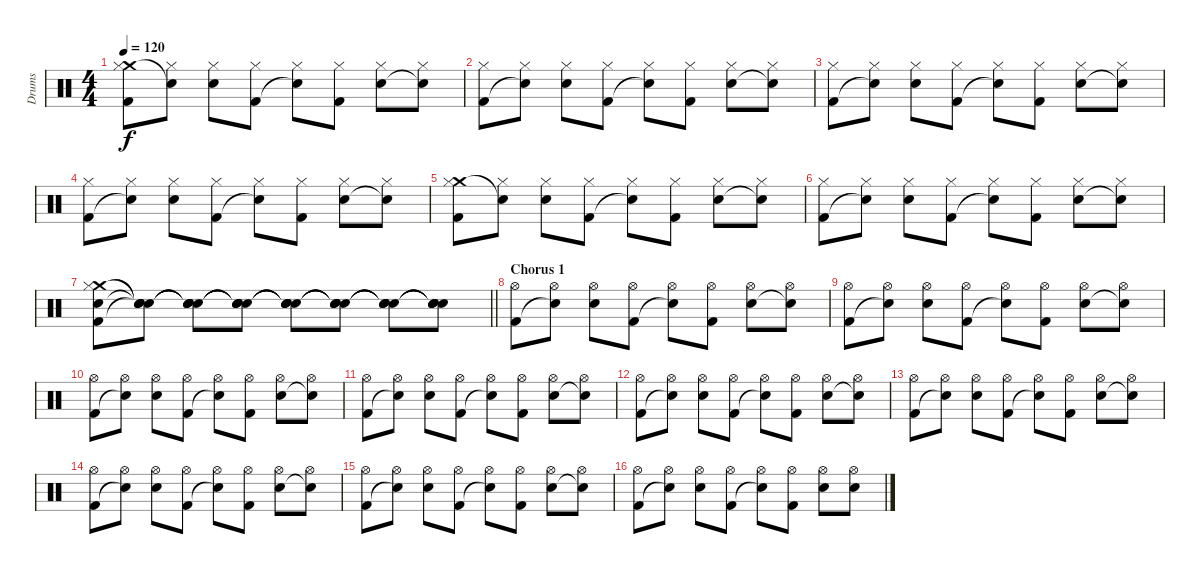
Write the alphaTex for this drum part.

\track ("Drums" "Drums") {instrument percussion}
\staff {score}
\articulation defaults
\ts (4 4)
\tempo 120
\clef neutral
\ks c
("Crash medium (hit)" "Hi-Hat (closed)" "Kick (hit) 2").8{dy f} ("Hi-Hat (closed)" "Snare (hit)"{t}).8 ("Hi-Hat (closed)" "Electric Snare (hit)").8 ("Hi-Hat (closed)" "Kick (hit) 2").8 ("Hi-Hat (closed)" "Snare (hit)"{t}).8 ("Hi-Hat (closed)" "Kick (hit) 2").8 ("Hi-Hat (closed)" "Electric Snare (hit)").8 ("Hi-Hat (closed)" "Snare (hit)"{t}).8 |
("Hi-Hat (closed)" "Kick (hit) 2").8 ("Hi-Hat (closed)" "Snare (hit)"{t}).8 ("Hi-Hat (closed)" "Electric Snare (hit)").8 ("Hi-Hat (closed)" "Kick (hit) 2").8 ("Hi-Hat (closed)" "Snare (hit)"{t}).8 ("Hi-Hat (closed)" "Kick (hit) 2").8 ("Hi-Hat (closed)" "Electric Snare (hit)").8 ("Hi-Hat (closed)" "Snare (hit)"{t}).8 |
("Hi-Hat (closed)" "Kick (hit) 2").8 ("Hi-Hat (closed)" "Snare (hit)"{t}).8 ("Hi-Hat (closed)" "Electric Snare (hit)").8 ("Hi-Hat (closed)" "Kick (hit) 2").8 ("Hi-Hat (closed)" "Snare (hit)"{t}).8 ("Hi-Hat (closed)" "Kick (hit) 2").8 ("Hi-Hat (closed)" "Electric Snare (hit)").8 ("Hi-Hat (closed)" "Snare (hit)"{t}).8 |
("Hi-Hat (closed)" "Kick (hit) 2").8 ("Hi-Hat (closed)" "Snare (hit)"{t}).8 ("Hi-Hat (closed)" "Electric Snare (hit)").8 ("Hi-Hat (closed)" "Kick (hit) 2").8 ("Hi-Hat (closed)" "Snare (hit)"{t}).8 ("Hi-Hat (closed)" "Kick (hit) 2").8 ("Hi-Hat (closed)" "Electric Snare (hit)").8 ("Hi-Hat (closed)" "Snare (hit)"{t}).8 |
("Crash medium (hit)" "Hi-Hat (closed)" "Kick (hit) 2").8 ("Hi-Hat (closed)" "Snare (hit)"{t}).8 ("Hi-Hat (closed)" "Electric Snare (hit)").8 ("Hi-Hat (closed)" "Kick (hit) 2").8 ("Hi-Hat (closed)" "Snare (hit)"{t}).8 ("Hi-Hat (closed)" "Kick (hit) 2").8 ("Hi-Hat (closed)" "Electric Snare (hit)").8 ("Hi-Hat (closed)" "Snare (hit)"{t}).8 |
("Hi-Hat (closed)" "Kick (hit) 2").8 ("Hi-Hat (closed)" "Snare (hit)"{t}).8 ("Hi-Hat (closed)" "Electric Snare (hit)").8 ("Hi-Hat (closed)" "Kick (hit) 2").8 ("Hi-Hat (closed)" "Snare (hit)"{t}).8 ("Hi-Hat (closed)" "Kick (hit) 2").8 ("Hi-Hat (closed)" "Electric Snare (hit)").8 ("Hi-Hat (closed)" "Snare (hit)"{t}).8 |
\barLineRight lightlight
("Crash medium (hit)" "Hi-Hat (closed)" "Electric Snare (hit)" "Kick (hit) 2").8 ("Snare (hit)"{t} "Snare (hit)"{t} "Snare (hit)"{t} "Snare (hit)"{t}).8 ("Snare (hit)"{t} "Snare (hit)"{t} "Snare (hit)"{t} "Snare (hit)"{t}).8 ("Snare (hit)"{t} "Snare (hit)"{t} "Snare (hit)"{t} "Snare (hit)"{t}).8 ("Snare (hit)"{t} "Snare (hit)"{t} "Snare (hit)"{t} "Snare (hit)"{t}).8 ("Snare (hit)"{t} "Snare (hit)"{t} "Snare (hit)"{t} "Snare (hit)"{t}).8 ("Snare (hit)"{t} "Snare (hit)"{t} "Snare (hit)"{t} "Snare (hit)"{t}).8 ("Snare (hit)"{t} "Snare (hit)"{t} "Snare (hit)"{t} "Snare (hit)"{t}).8 |
\section ("" "Chorus 1")
("Hi-Hat (open)" "Kick (hit) 2").8 ("Hi-Hat (open)" "Snare (hit)"{t}).8 ("Hi-Hat (open)" "Electric Snare (hit)").8 ("Hi-Hat (open)" "Kick (hit) 2").8 ("Hi-Hat (open)" "Snare (hit)"{t}).8 ("Hi-Hat (open)" "Kick (hit) 2").8 ("Hi-Hat (open)" "Electric Snare (hit)").8 ("Hi-Hat (open)" "Snare (hit)"{t}).8 |
("Hi-Hat (open)" "Kick (hit) 2").8 ("Hi-Hat (open)" "Snare (hit)"{t}).8 ("Hi-Hat (open)" "Electric Snare (hit)").8 ("Hi-Hat (open)" "Kick (hit) 2").8 ("Hi-Hat (open)" "Snare (hit)"{t}).8 ("Hi-Hat (open)" "Kick (hit) 2").8 ("Hi-Hat (open)" "Electric Snare (hit)").8 ("Hi-Hat (open)" "Snare (hit)"{t}).8 |
("Hi-Hat (open)" "Kick (hit) 2").8 ("Hi-Hat (open)" "Snare (hit)"{t}).8 ("Hi-Hat (open)" "Electric Snare (hit)").8 ("Hi-Hat (open)" "Kick (hit) 2").8 ("Hi-Hat (open)" "Snare (hit)"{t}).8 ("Hi-Hat (open)" "Kick (hit) 2").8 ("Hi-Hat (open)" "Electric Snare (hit)").8 ("Hi-Hat (open)" "Snare (hit)"{t}).8 |
("Hi-Hat (open)" "Kick (hit) 2").8 ("Hi-Hat (open)" "Snare (hit)"{t}).8 ("Hi-Hat (open)" "Electric Snare (hit)").8 ("Hi-Hat (open)" "Kick (hit) 2").8 ("Hi-Hat (open)" "Snare (hit)"{t}).8 ("Hi-Hat (open)" "Kick (hit) 2").8 ("Hi-Hat (open)" "Electric Snare (hit)").8 ("Hi-Hat (open)" "Snare (hit)"{t}).8 |
("Hi-Hat (open)" "Kick (hit) 2").8 ("Hi-Hat (open)" "Snare (hit)"{t}).8 ("Hi-Hat (open)" "Electric Snare (hit)").8 ("Hi-Hat (open)" "Kick (hit) 2").8 ("Hi-Hat (open)" "Snare (hit)"{t}).8 ("Hi-Hat (open)" "Kick (hit) 2").8 ("Hi-Hat (open)" "Electric Snare (hit)").8 ("Hi-Hat (open)" "Snare (hit)"{t}).8 |
("Hi-Hat (open)" "Kick (hit) 2").8 ("Hi-Hat (open)" "Snare (hit)"{t}).8 ("Hi-Hat (open)" "Electric Snare (hit)").8 ("Hi-Hat (open)" "Kick (hit) 2").8 ("Hi-Hat (open)" "Snare (hit)"{t}).8 ("Hi-Hat (open)" "Kick (hit) 2").8 ("Hi-Hat (open)" "Electric Snare (hit)").8 ("Hi-Hat (open)" "Snare (hit)"{t}).8 |
("Hi-Hat (open)" "Kick (hit) 2").8 ("Hi-Hat (open)" "Snare (hit)"{t}).8 ("Hi-Hat (open)" "Electric Snare (hit)").8 ("Hi-Hat (open)" "Kick (hit) 2").8 ("Hi-Hat (open)" "Snare (hit)"{t}).8 ("Hi-Hat (open)" "Kick (hit) 2").8 ("Hi-Hat (open)" "Electric Snare (hit)").8 ("Hi-Hat (open)" "Snare (hit)"{t}).8 |
("Hi-Hat (open)" "Kick (hit) 2").8 ("Hi-Hat (open)" "Snare (hit)"{t}).8 ("Hi-Hat (open)" "Electric Snare (hit)").8 ("Hi-Hat (open)" "Kick (hit) 2").8 ("Hi-Hat (open)" "Snare (hit)"{t}).8 ("Hi-Hat (open)" "Kick (hit) 2").8 ("Hi-Hat (open)" "Electric Snare (hit)").8 ("Hi-Hat (open)" "Snare (hit)"{t}).8 |
("Hi-Hat (open)" "Kick (hit) 2").8 ("Hi-Hat (open)" "Snare (hit)"{t}).8 ("Hi-Hat (open)" "Electric Snare (hit)").8 ("Hi-Hat (open)" "Kick (hit) 2").8 ("Hi-Hat (open)" "Snare (hit)"{t}).8 ("Hi-Hat (open)" "Kick (hit) 2").8 ("Hi-Hat (open)" "Electric Snare (hit)").8 ("Hi-Hat (open)" "Electric Snare (hit)").8
